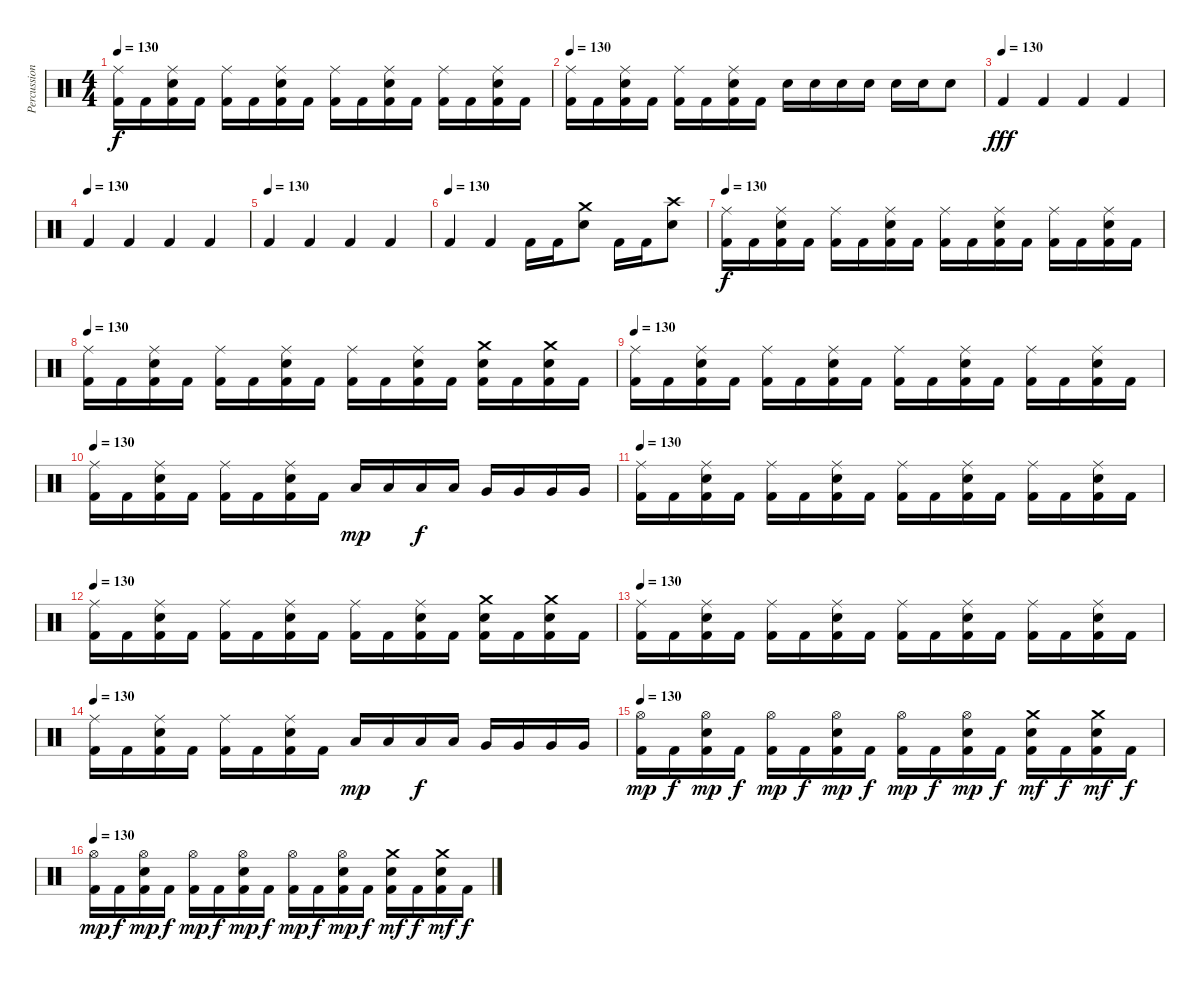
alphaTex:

\track ("Percussion" "Percussion") {instrument percussion}
\staff {score}
\articulation defaults
\ts (4 4)
\tempo 130
\clef neutral
\ks c
("Ride (middle)" "Kick (hit) 2").16{dy f} "Kick (hit) 2".16 ("Ride (middle)" "Snare (hit) 2" "Kick (hit) 2").16 "Kick (hit) 2".16 ("Ride (middle)" "Kick (hit) 2").16 "Kick (hit) 2".16 ("Ride (middle)" "Snare (hit) 2" "Kick (hit) 2").16 "Kick (hit) 2".16 ("Ride (middle)" "Kick (hit) 2").16 "Kick (hit) 2".16 ("Ride (middle)" "Snare (hit) 2" "Kick (hit) 2").16 "Kick (hit) 2".16 ("Ride (middle)" "Kick (hit) 2").16 "Kick (hit) 2".16 ("Ride (middle)" "Snare (hit) 2" "Kick (hit) 2").16 "Kick (hit) 2".16 |
\tempo 130
("Ride (middle)" "Kick (hit) 2").16 "Kick (hit) 2".16 ("Ride (middle)" "Snare (hit) 2" "Kick (hit) 2").16 "Kick (hit) 2".16 ("Ride (middle)" "Kick (hit) 2").16 "Kick (hit) 2".16 ("Ride (middle)" "Snare (hit) 2" "Kick (hit) 2").16 "Kick (hit) 2".16 "Snare (hit) 2".16 "Snare (hit) 2".16 "Snare (hit) 2".16 "Snare (hit) 2".16 "Snare (hit) 2".16 "Snare (hit) 2".16 "Snare (hit) 2".8 |
\tempo (130)
"Kick (hit) 2".4{dy fff} "Kick (hit) 2".4 "Kick (hit) 2".4 "Kick (hit) 2".4 |
\tempo (130)
"Kick (hit) 2".4 "Kick (hit) 2".4 "Kick (hit) 2".4 "Kick (hit) 2".4 |
\tempo (130)
"Kick (hit) 2".4 "Kick (hit) 2".4 "Kick (hit) 2".4 "Kick (hit) 2".4 |
\tempo (130)
"Kick (hit) 2".4 "Kick (hit) 2".4 "Kick (hit) 2".16 "Kick (hit) 2".16 ("Crash medium (hit)" "Snare (hit) 2").8 "Kick (hit) 2".16 "Kick (hit) 2".16 ("Crash high (hit)" "Snare (hit) 2").8 |
\tempo 130
("Ride (middle)" "Kick (hit) 2").16{dy f} "Kick (hit) 2".16 ("Ride (middle)" "Snare (hit) 2" "Kick (hit) 2").16 "Kick (hit) 2".16 ("Ride (middle)" "Kick (hit) 2").16 "Kick (hit) 2".16 ("Ride (middle)" "Snare (hit) 2" "Kick (hit) 2").16 "Kick (hit) 2".16 ("Ride (middle)" "Kick (hit) 2").16 "Kick (hit) 2".16 ("Ride (middle)" "Snare (hit) 2" "Kick (hit) 2").16 "Kick (hit) 2".16 ("Ride (middle)" "Kick (hit) 2").16 "Kick (hit) 2".16 ("Ride (middle)" "Snare (hit) 2" "Kick (hit) 2").16 "Kick (hit) 2".16 |
\tempo 130
("Ride (middle)" "Kick (hit) 2").16 "Kick (hit) 2".16 ("Ride (middle)" "Snare (hit) 2" "Kick (hit) 2").16 "Kick (hit) 2".16 ("Ride (middle)" "Kick (hit) 2").16 "Kick (hit) 2".16 ("Ride (middle)" "Snare (hit) 2" "Kick (hit) 2").16 "Kick (hit) 2".16 ("Ride (middle)" "Kick (hit) 2").16 "Kick (hit) 2".16 ("Ride (middle)" "Snare (hit) 2" "Kick (hit) 2").16 "Kick (hit) 2".16 ("Crash medium (hit)" "Snare (hit) 2" "Kick (hit) 2").16 "Kick (hit) 2".16 ("Crash medium (hit)" "Snare (hit) 2" "Kick (hit) 2").16 "Kick (hit) 2".16 |
\tempo 130
("Ride (middle)" "Kick (hit) 2").16 "Kick (hit) 2".16 ("Ride (middle)" "Snare (hit) 2" "Kick (hit) 2").16 "Kick (hit) 2".16 ("Ride (middle)" "Kick (hit) 2").16 "Kick (hit) 2".16 ("Ride (middle)" "Snare (hit) 2" "Kick (hit) 2").16 "Kick (hit) 2".16 ("Ride (middle)" "Kick (hit) 2").16 "Kick (hit) 2".16 ("Ride (middle)" "Snare (hit) 2" "Kick (hit) 2").16 "Kick (hit) 2".16 ("Ride (middle)" "Kick (hit) 2").16 "Kick (hit) 2".16 ("Ride (middle)" "Snare (hit) 2" "Kick (hit) 2").16 "Kick (hit) 2".16 |
\tempo 130
("Ride (middle)" "Kick (hit) 2").16 "Kick (hit) 2".16 ("Ride (middle)" "Snare (hit) 2" "Kick (hit) 2").16 "Kick (hit) 2".16 ("Ride (middle)" "Kick (hit) 2").16 "Kick (hit) 2".16 ("Ride (middle)" "Snare (hit) 2" "Kick (hit) 2").16 "Kick (hit) 2".16 "Low Tom (hit)".16{dy mp} "Low Tom (hit)".16 "Low Tom (hit)".16{dy f} "Low Tom (hit)".16 "Very Low Tom (hit)".16 "Very Low Tom (hit)".16 "Very Low Tom (hit)".16 "Very Low Tom (hit)".16 |
\tempo 130
("Ride (middle)" "Kick (hit) 2").16 "Kick (hit) 2".16 ("Ride (middle)" "Snare (hit) 2" "Kick (hit) 2").16 "Kick (hit) 2".16 ("Ride (middle)" "Kick (hit) 2").16 "Kick (hit) 2".16 ("Ride (middle)" "Snare (hit) 2" "Kick (hit) 2").16 "Kick (hit) 2".16 ("Ride (middle)" "Kick (hit) 2").16 "Kick (hit) 2".16 ("Ride (middle)" "Snare (hit) 2" "Kick (hit) 2").16 "Kick (hit) 2".16 ("Ride (middle)" "Kick (hit) 2").16 "Kick (hit) 2".16 ("Ride (middle)" "Snare (hit) 2" "Kick (hit) 2").16 "Kick (hit) 2".16 |
\tempo 130
("Ride (middle)" "Kick (hit) 2").16 "Kick (hit) 2".16 ("Ride (middle)" "Snare (hit) 2" "Kick (hit) 2").16 "Kick (hit) 2".16 ("Ride (middle)" "Kick (hit) 2").16 "Kick (hit) 2".16 ("Ride (middle)" "Snare (hit) 2" "Kick (hit) 2").16 "Kick (hit) 2".16 ("Ride (middle)" "Kick (hit) 2").16 "Kick (hit) 2".16 ("Ride (middle)" "Snare (hit) 2" "Kick (hit) 2").16 "Kick (hit) 2".16 ("Crash medium (hit)" "Snare (hit) 2" "Kick (hit) 2").16 "Kick (hit) 2".16 ("Crash medium (hit)" "Snare (hit) 2" "Kick (hit) 2").16 "Kick (hit) 2".16 |
\tempo 130
("Ride (middle)" "Kick (hit) 2").16 "Kick (hit) 2".16 ("Ride (middle)" "Snare (hit) 2" "Kick (hit) 2").16 "Kick (hit) 2".16 ("Ride (middle)" "Kick (hit) 2").16 "Kick (hit) 2".16 ("Ride (middle)" "Snare (hit) 2" "Kick (hit) 2").16 "Kick (hit) 2".16 ("Ride (middle)" "Kick (hit) 2").16 "Kick (hit) 2".16 ("Ride (middle)" "Snare (hit) 2" "Kick (hit) 2").16 "Kick (hit) 2".16 ("Ride (middle)" "Kick (hit) 2").16 "Kick (hit) 2".16 ("Ride (middle)" "Snare (hit) 2" "Kick (hit) 2").16 "Kick (hit) 2".16 |
\tempo 130
("Ride (middle)" "Kick (hit) 2").16 "Kick (hit) 2".16 ("Ride (middle)" "Snare (hit) 2" "Kick (hit) 2").16 "Kick (hit) 2".16 ("Ride (middle)" "Kick (hit) 2").16 "Kick (hit) 2".16 ("Ride (middle)" "Snare (hit) 2" "Kick (hit) 2").16 "Kick (hit) 2".16 "Low Tom (hit)".16{dy mp} "Low Tom (hit)".16 "Low Tom (hit)".16{dy f} "Low Tom (hit)".16 "Very Low Tom (hit)".16 "Very Low Tom (hit)".16 "Very Low Tom (hit)".16 "Very Low Tom (hit)".16 |
\tempo 130
("Hi-Hat (open)" "Kick (hit) 2").16{dy mp} "Kick (hit) 2".16{dy f} ("Hi-Hat (open)" "Snare (hit) 2" "Kick (hit) 2").16{dy mp} "Kick (hit) 2".16{dy f} ("Hi-Hat (open)" "Kick (hit) 2").16{dy mp} "Kick (hit) 2".16{dy f} ("Hi-Hat (open)" "Snare (hit) 2" "Kick (hit) 2").16{dy mp} "Kick (hit) 2".16{dy f} ("Hi-Hat (open)" "Kick (hit) 2").16{dy mp} "Kick (hit) 2".16{dy f} ("Hi-Hat (open)" "Snare (hit) 2" "Kick (hit) 2").16{dy mp} "Kick (hit) 2".16{dy f} ("Crash medium (hit)" "Snare (hit) 2" "Kick (hit) 2").16{dy mf} "Kick (hit) 2".16{dy f} ("Crash medium (hit)" "Snare (hit) 2" "Kick (hit) 2").16{dy mf} "Kick (hit) 2".16{dy f} |
\tempo 130
("Hi-Hat (open)" "Kick (hit) 2").16{dy mp} "Kick (hit) 2".16{dy f} ("Hi-Hat (open)" "Snare (hit) 2" "Kick (hit) 2").16{dy mp} "Kick (hit) 2".16{dy f} ("Hi-Hat (open)" "Kick (hit) 2").16{dy mp} "Kick (hit) 2".16{dy f} ("Hi-Hat (open)" "Snare (hit) 2" "Kick (hit) 2").16{dy mp} "Kick (hit) 2".16{dy f} ("Hi-Hat (open)" "Kick (hit) 2").16{dy mp} "Kick (hit) 2".16{dy f} ("Hi-Hat (open)" "Snare (hit) 2" "Kick (hit) 2").16{dy mp} "Kick (hit) 2".16{dy f} ("Crash medium (hit)" "Snare (hit) 2" "Kick (hit) 2").16{dy mf} "Kick (hit) 2".16{dy f} ("Crash medium (hit)" "Snare (hit) 2" "Kick (hit) 2").16{dy mf} "Kick (hit) 2".16{dy f}
